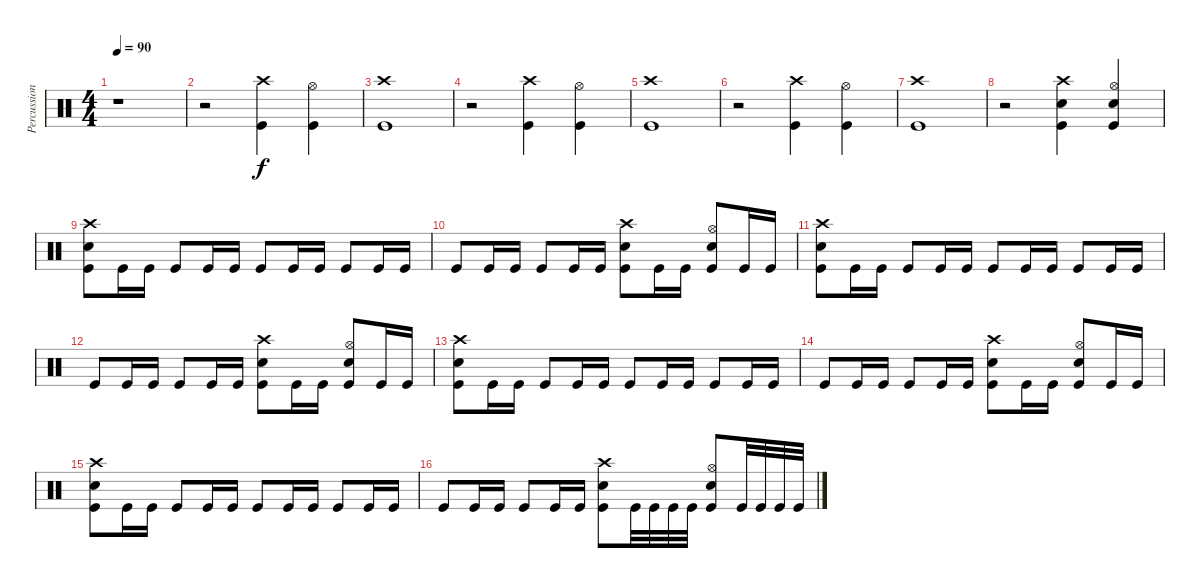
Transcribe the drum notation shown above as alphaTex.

\track ("Percussions" "Percussion") {instrument percussion}
\staff {score}
\articulation defaults
\ts (4 4)
\tempo 90
\clef neutral
\ks c
r.1{dy f} |
r.2 ("Crash high (hit)" "Kick (hit)").4 ("Hi-Hat (open)" "Kick (hit)").4 |
("Crash high (hit)" "Kick (hit)").1 |
r.2 ("Crash high (hit)" "Kick (hit)").4 ("Hi-Hat (open)" "Kick (hit)").4 |
("Crash high (hit)" "Kick (hit)").1 |
r.2 ("Crash high (hit)" "Kick (hit)").4 ("Hi-Hat (open)" "Kick (hit)").4 |
("Crash high (hit)" "Kick (hit)").1 |
r.2 ("Crash high (hit)" "Snare (hit) 2" "Kick (hit)").4 ("Hi-Hat (open)" "Snare (hit) 2" "Kick (hit)").4 |
("Crash high (hit)" "Snare (hit) 2" "Kick (hit)").8 "Kick (hit)".16 "Kick (hit)".16 "Kick (hit)".8 "Kick (hit)".16 "Kick (hit)".16 "Kick (hit)".8 "Kick (hit)".16 "Kick (hit)".16 "Kick (hit)".8 "Kick (hit)".16 "Kick (hit)".16 |
"Kick (hit)".8 "Kick (hit)".16 "Kick (hit)".16 "Kick (hit)".8 "Kick (hit)".16 "Kick (hit)".16 ("Crash high (hit)" "Snare (hit) 2" "Kick (hit)").8 "Kick (hit)".16 "Kick (hit)".16 ("Hi-Hat (open)" "Snare (hit) 2" "Kick (hit)").8 "Kick (hit)".16 "Kick (hit)".16 |
("Crash high (hit)" "Snare (hit) 2" "Kick (hit)").8 "Kick (hit)".16 "Kick (hit)".16 "Kick (hit)".8 "Kick (hit)".16 "Kick (hit)".16 "Kick (hit)".8 "Kick (hit)".16 "Kick (hit)".16 "Kick (hit)".8 "Kick (hit)".16 "Kick (hit)".16 |
"Kick (hit)".8 "Kick (hit)".16 "Kick (hit)".16 "Kick (hit)".8 "Kick (hit)".16 "Kick (hit)".16 ("Crash high (hit)" "Snare (hit) 2" "Kick (hit)").8 "Kick (hit)".16 "Kick (hit)".16 ("Hi-Hat (open)" "Snare (hit) 2" "Kick (hit)").8 "Kick (hit)".16 "Kick (hit)".16 |
("Crash high (hit)" "Snare (hit) 2" "Kick (hit)").8 "Kick (hit)".16 "Kick (hit)".16 "Kick (hit)".8 "Kick (hit)".16 "Kick (hit)".16 "Kick (hit)".8 "Kick (hit)".16 "Kick (hit)".16 "Kick (hit)".8 "Kick (hit)".16 "Kick (hit)".16 |
"Kick (hit)".8 "Kick (hit)".16 "Kick (hit)".16 "Kick (hit)".8 "Kick (hit)".16 "Kick (hit)".16 ("Crash high (hit)" "Snare (hit) 2" "Kick (hit)").8 "Kick (hit)".16 "Kick (hit)".16 ("Hi-Hat (open)" "Snare (hit) 2" "Kick (hit)").8 "Kick (hit)".16 "Kick (hit)".16 |
("Crash high (hit)" "Snare (hit) 2" "Kick (hit)").8 "Kick (hit)".16 "Kick (hit)".16 "Kick (hit)".8 "Kick (hit)".16 "Kick (hit)".16 "Kick (hit)".8 "Kick (hit)".16 "Kick (hit)".16 "Kick (hit)".8 "Kick (hit)".16 "Kick (hit)".16 |
"Kick (hit)".8 "Kick (hit)".16 "Kick (hit)".16 "Kick (hit)".8 "Kick (hit)".16 "Kick (hit)".16 ("Crash high (hit)" "Snare (hit) 2" "Kick (hit)").8 "Kick (hit)".32 "Kick (hit)".32 "Kick (hit)".32 "Kick (hit)".32 ("Hi-Hat (open)" "Snare (hit) 2" "Kick (hit)").8 "Kick (hit)".32 "Kick (hit)".32 "Kick (hit)".32 "Kick (hit)".32
